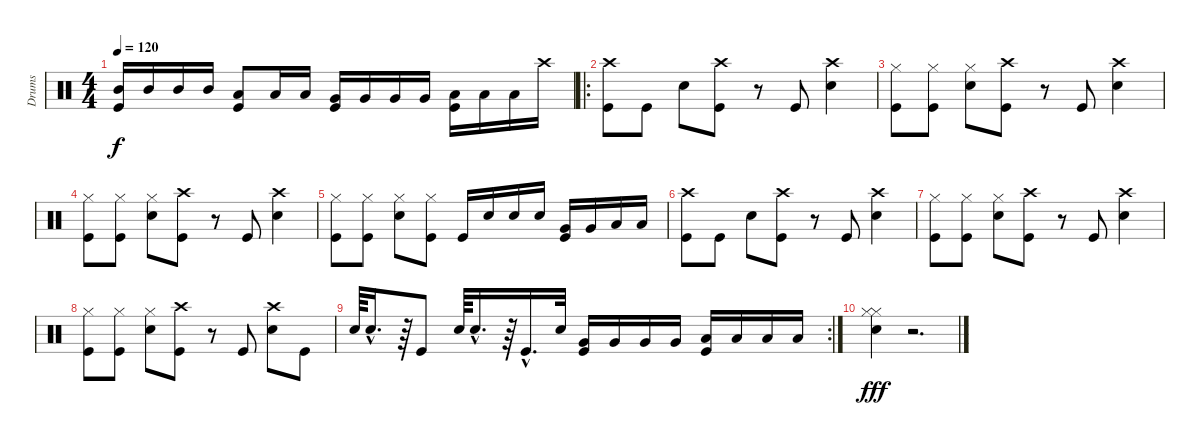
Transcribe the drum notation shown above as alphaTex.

\track ("Drums" "Drums") {instrument percussion}
\staff {score}
\articulation defaults
\ts (4 4)
\tempo 120
\clef neutral
\ks c
("Kick (hit)" "Mid Tom (hit)").16{dy f} "Mid Tom (hit)".16 "Mid Tom (hit)".16 "Mid Tom (hit)".16 ("Kick (hit)" "Low Tom (hit)").8 "Low Tom (hit)".16 "Low Tom (hit)".16 ("Kick (hit)" "Very Low Tom (hit)").16 "Very Low Tom (hit)".16 "Very Low Tom (hit)".16 "Very Low Tom (hit)".16 ("Kick (hit)" "Low Floor Tom (hit)").16 "Low Floor Tom (hit)".16 "Low Floor Tom (hit)".16 "Crash high (hit)".16 |
\ro
("Crash high (hit)" "Kick (hit)").8 "Kick (hit)".8 "Snare (hit) 2".8 ("Crash high (hit)" "Kick (hit)").8 r.8 "Kick (hit)".8 ("Crash high (hit)" "Snare (hit) 2").4 |
("Hi-Hat (closed)" "Kick (hit)").8 ("Hi-Hat (closed)" "Kick (hit)").8 ("Hi-Hat (closed)" "Snare (hit) 2").8 ("Crash high (hit)" "Kick (hit)").8 r.8 "Kick (hit)".8 ("Crash high (hit)" "Snare (hit) 2").4 |
("Hi-Hat (closed)" "Kick (hit)").8 ("Hi-Hat (closed)" "Kick (hit)").8 ("Hi-Hat (closed)" "Snare (hit) 2").8 ("Crash high (hit)" "Kick (hit)").8 r.8 "Kick (hit)".8 ("Crash high (hit)" "Snare (hit) 2").4 |
("Hi-Hat (closed)" "Kick (hit)").8 ("Hi-Hat (closed)" "Kick (hit)").8 ("Hi-Hat (closed)" "Snare (hit) 2").8 ("Hi-Hat (closed)" "Kick (hit)").8 "Kick (hit)".16 "Snare (hit) 2".16 "Snare (hit) 2".16 "Snare (hit) 2".16 ("Kick (hit)" "Very Low Tom (hit)").16 "Very Low Tom (hit)".16 "Low Floor Tom (hit)".16 "Low Floor Tom (hit)".16 |
("Crash high (hit)" "Kick (hit)").8 "Kick (hit)".8 "Snare (hit) 2".8 ("Crash high (hit)" "Kick (hit)").8 r.8 "Kick (hit)".8 ("Crash high (hit)" "Snare (hit) 2").4 |
("Hi-Hat (closed)" "Kick (hit)").8 ("Hi-Hat (closed)" "Kick (hit)").8 ("Hi-Hat (closed)" "Snare (hit) 2").8 ("Crash high (hit)" "Kick (hit)").8 r.8 "Kick (hit)".8 ("Crash high (hit)" "Snare (hit) 2").4 |
("Hi-Hat (closed)" "Kick (hit)").8 ("Hi-Hat (closed)" "Kick (hit)").8 ("Hi-Hat (closed)" "Snare (hit) 2").8 ("Crash high (hit)" "Kick (hit)").8 r.8 "Kick (hit)".8 ("Crash high (hit)" "Snare (hit) 2").8 "Kick (hit)".8 |
\rc 2 "Snare (hit) 2".64 "Snare (hit) 2"{hac}.16{d}
r.64 "Kick (hit)".8 "Snare (hit) 2".64 "Snare (hit) 2"{hac}.16{d} r.64 "Kick (hit)"{hac}.16{d} "Snare (hit) 2".32 ("Kick (hit)" "Very Low Tom (hit)").16 "Very Low Tom (hit)".16 "Very Low Tom (hit)".16 "Very Low Tom (hit)".16 ("Kick (hit)" "Low Floor Tom (hit)").16 "Low Floor Tom (hit)".16 "Low Floor Tom (hit)".16 "Low Floor Tom (hit)".16 |
("Hi-Hat (closed)" "Hi-Hat (closed)" "Snare (hit) 2").4{dy fff} r.2{d}
